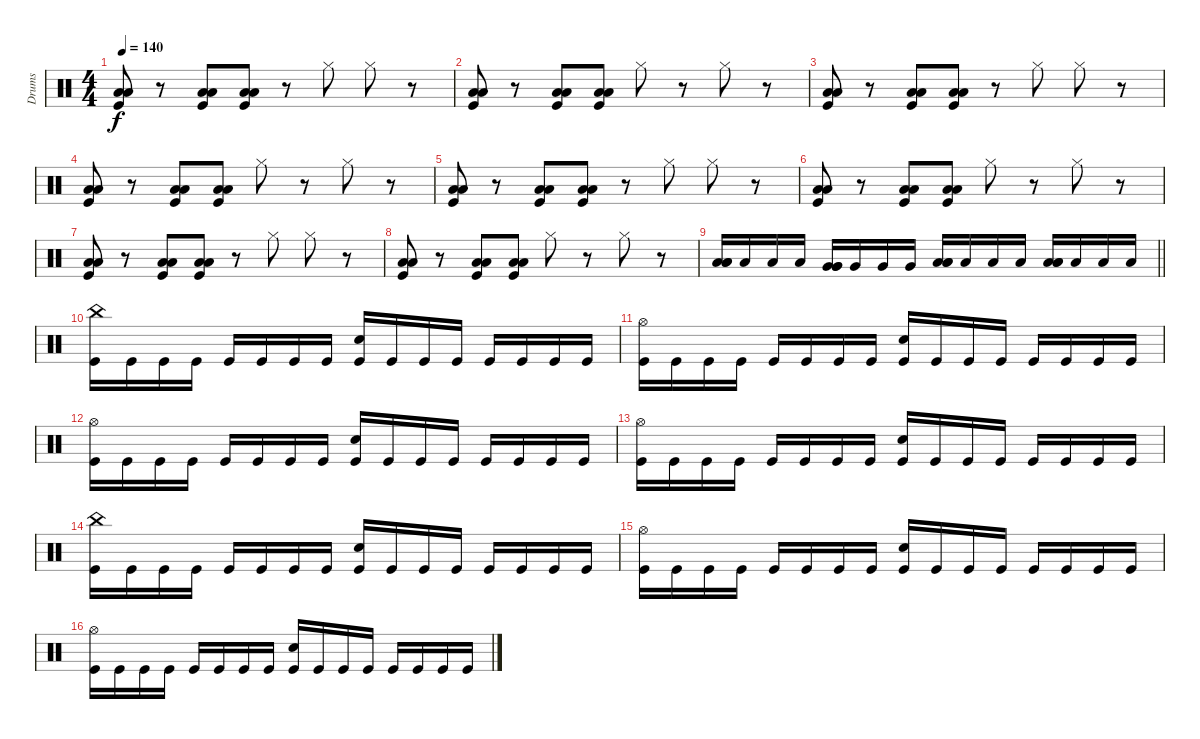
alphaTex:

\track ("Drums" "Drums") {instrument percussion}
\staff {score}
\articulation defaults
\ts (4 4)
\tempo 140
\clef neutral
\ks c
("Low Floor Tom (hit)" "Low Floor Tom (hit)" "Kick (hit)").8{dy f} r.8 ("Low Floor Tom (hit)" "Low Floor Tom (hit)" "Kick (hit)").8 ("Low Floor Tom (hit)" "Low Floor Tom (hit)" "Kick (hit)").8 r.8 "Hi-Hat (closed)".8 "Hi-Hat (closed)".8 r.8 |
("Low Floor Tom (hit)" "Low Floor Tom (hit)" "Kick (hit)").8 r.8 ("Low Floor Tom (hit)" "Low Floor Tom (hit)" "Kick (hit)").8 ("Low Floor Tom (hit)" "Low Floor Tom (hit)" "Kick (hit)").8 "Hi-Hat (closed)".8 r.8 "Hi-Hat (closed)".8 r.8 |
("Low Floor Tom (hit)" "Low Floor Tom (hit)" "Kick (hit)").8 r.8 ("Low Floor Tom (hit)" "Low Floor Tom (hit)" "Kick (hit)").8 ("Low Floor Tom (hit)" "Low Floor Tom (hit)" "Kick (hit)").8 r.8 "Hi-Hat (closed)".8 "Hi-Hat (closed)".8 r.8 |
("Low Floor Tom (hit)" "Low Floor Tom (hit)" "Kick (hit)").8 r.8 ("Low Floor Tom (hit)" "Low Floor Tom (hit)" "Kick (hit)").8 ("Low Floor Tom (hit)" "Low Floor Tom (hit)" "Kick (hit)").8 "Hi-Hat (closed)".8 r.8 "Hi-Hat (closed)".8 r.8 |
("Low Floor Tom (hit)" "Low Floor Tom (hit)" "Kick (hit)").8 r.8 ("Low Floor Tom (hit)" "Low Floor Tom (hit)" "Kick (hit)").8 ("Low Floor Tom (hit)" "Low Floor Tom (hit)" "Kick (hit)").8 r.8 "Hi-Hat (closed)".8 "Hi-Hat (closed)".8 r.8 |
("Low Floor Tom (hit)" "Low Floor Tom (hit)" "Kick (hit)").8 r.8 ("Low Floor Tom (hit)" "Low Floor Tom (hit)" "Kick (hit)").8 ("Low Floor Tom (hit)" "Low Floor Tom (hit)" "Kick (hit)").8 "Hi-Hat (closed)".8 r.8 "Hi-Hat (closed)".8 r.8 |
("Low Floor Tom (hit)" "Low Floor Tom (hit)" "Kick (hit)").8 r.8 ("Low Floor Tom (hit)" "Low Floor Tom (hit)" "Kick (hit)").8 ("Low Floor Tom (hit)" "Low Floor Tom (hit)" "Kick (hit)").8 r.8 "Hi-Hat (closed)".8 "Hi-Hat (closed)".8 r.8 |
("Low Floor Tom (hit)" "Low Floor Tom (hit)" "Kick (hit)").8 r.8 ("Low Floor Tom (hit)" "Low Floor Tom (hit)" "Kick (hit)").8 ("Low Floor Tom (hit)" "Low Floor Tom (hit)" "Kick (hit)").8 "Hi-Hat (closed)".8 r.8 "Hi-Hat (closed)".8 r.8 |
\barLineRight lightlight
("Low Tom (hit)" "Low Tom (hit)" "Low Tom (hit)").16 "Low Tom (hit)".16 "Low Tom (hit)".16 "Low Tom (hit)".16 ("Very Low Tom (hit)" "Very Low Tom (hit)" "Very Low Tom (hit)").16 "Very Low Tom (hit)".16 "Very Low Tom (hit)".16 "Very Low Tom (hit)".16 ("Low Floor Tom (hit)" "Low Floor Tom (hit)" "Low Floor Tom (hit)").16 "Low Floor Tom (hit)".16 "Low Floor Tom (hit)".16 "Low Floor Tom (hit)".16 ("Low Tom (hit)" "Low Tom (hit)" "Low Tom (hit)").16 "Low Tom (hit)".16 "Low Tom (hit)".16 "Low Tom (hit)".16 |
\section ("" "")
("China (hit)" "Kick (hit)").16 "Kick (hit)".16 "Kick (hit)".16 "Kick (hit)".16 "Kick (hit)".16 "Kick (hit)".16 "Kick (hit)".16 "Kick (hit)".16 ("Electric Snare (hit)" "Kick (hit)").16 "Kick (hit)".16 "Kick (hit)".16 "Kick (hit)".16 "Kick (hit)".16 "Kick (hit)".16 "Kick (hit)".16 "Kick (hit)".16 |
("Hi-Hat (open)" "Kick (hit)").16 "Kick (hit)".16 "Kick (hit)".16 "Kick (hit)".16 "Kick (hit)".16 "Kick (hit)".16 "Kick (hit)".16 "Kick (hit)".16 ("Electric Snare (hit)" "Kick (hit)").16 "Kick (hit)".16 "Kick (hit)".16 "Kick (hit)".16 "Kick (hit)".16 "Kick (hit)".16 "Kick (hit)".16 "Kick (hit)".16 |
("Hi-Hat (open)" "Kick (hit)").16 "Kick (hit)".16 "Kick (hit)".16 "Kick (hit)".16 "Kick (hit)".16 "Kick (hit)".16 "Kick (hit)".16 "Kick (hit)".16 ("Electric Snare (hit)" "Kick (hit)").16 "Kick (hit)".16 "Kick (hit)".16 "Kick (hit)".16 "Kick (hit)".16 "Kick (hit)".16 "Kick (hit)".16 "Kick (hit)".16 |
("Hi-Hat (open)" "Kick (hit)").16 "Kick (hit)".16 "Kick (hit)".16 "Kick (hit)".16 "Kick (hit)".16 "Kick (hit)".16 "Kick (hit)".16 "Kick (hit)".16 ("Electric Snare (hit)" "Kick (hit)").16 "Kick (hit)".16 "Kick (hit)".16 "Kick (hit)".16 "Kick (hit)".16 "Kick (hit)".16 "Kick (hit)".16 "Kick (hit)".16 |
("China (hit)" "Kick (hit)").16 "Kick (hit)".16 "Kick (hit)".16 "Kick (hit)".16 "Kick (hit)".16 "Kick (hit)".16 "Kick (hit)".16 "Kick (hit)".16 ("Electric Snare (hit)" "Kick (hit)").16 "Kick (hit)".16 "Kick (hit)".16 "Kick (hit)".16 "Kick (hit)".16 "Kick (hit)".16 "Kick (hit)".16 "Kick (hit)".16 |
("Hi-Hat (open)" "Kick (hit)").16 "Kick (hit)".16 "Kick (hit)".16 "Kick (hit)".16 "Kick (hit)".16 "Kick (hit)".16 "Kick (hit)".16 "Kick (hit)".16 ("Electric Snare (hit)" "Kick (hit)").16 "Kick (hit)".16 "Kick (hit)".16 "Kick (hit)".16 "Kick (hit)".16 "Kick (hit)".16 "Kick (hit)".16 "Kick (hit)".16 |
("Hi-Hat (open)" "Kick (hit)").16 "Kick (hit)".16 "Kick (hit)".16 "Kick (hit)".16 "Kick (hit)".16 "Kick (hit)".16 "Kick (hit)".16 "Kick (hit)".16 ("Electric Snare (hit)" "Kick (hit)").16 "Kick (hit)".16 "Kick (hit)".16 "Kick (hit)".16 "Kick (hit)".16 "Kick (hit)".16 "Kick (hit)".16 "Kick (hit)".16
